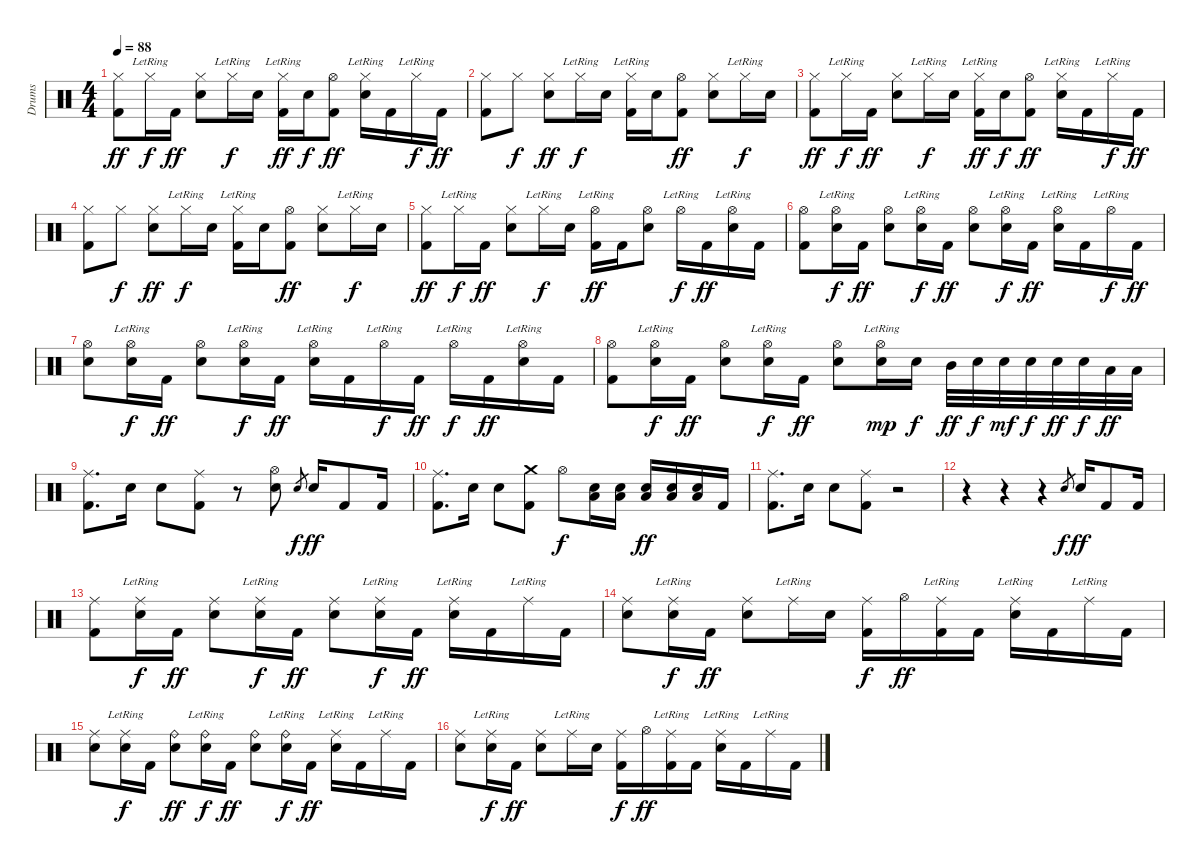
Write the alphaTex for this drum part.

\track ("Drums" "Drums") {instrument percussion}
\staff {score}
\articulation defaults
\ts (4 4)
\tempo 88
\clef neutral
\ks c
("Hi-Hat (closed)" "Kick (hit) 2").8{dy ff} "Hi-Hat (closed)"{lr}.16{dy f} "Kick (hit) 2".16{dy ff} ("Hi-Hat (closed)" "Electric Snare (hit)").8 "Hi-Hat (closed)"{lr}.16{dy f} "Electric Snare (hit)".16 ("Hi-Hat (closed)"{lr} "Kick (hit) 2").16{dy ff} "Electric Snare (hit)".16{dy f} ("Hi-Hat (open)" "Kick (hit) 2").8{dy ff} ("Hi-Hat (closed)"{lr} "Electric Snare (hit)").16 "Kick (hit) 2".16 "Hi-Hat (closed)"{lr}.16{dy f} "Kick (hit) 2".16{dy ff} |
("Hi-Hat (closed)" "Kick (hit) 2").8 "Hi-Hat (closed)".8{dy f} ("Hi-Hat (closed)" "Electric Snare (hit)").8{dy ff} "Hi-Hat (closed)"{lr}.16{dy f} "Electric Snare (hit)".16 ("Hi-Hat (closed)"{lr} "Kick (hit) 2").16 "Electric Snare (hit)".16 ("Hi-Hat (open)" "Kick (hit) 2").8{dy ff} ("Hi-Hat (closed)" "Electric Snare (hit)").8 "Hi-Hat (closed)"{lr}.16{dy f} "Electric Snare (hit)".16 |
("Hi-Hat (closed)" "Kick (hit) 2").8{dy ff} "Hi-Hat (closed)"{lr}.16{dy f} "Kick (hit) 2".16{dy ff} ("Hi-Hat (closed)" "Electric Snare (hit)").8 "Hi-Hat (closed)"{lr}.16{dy f} "Electric Snare (hit)".16 ("Hi-Hat (closed)"{lr} "Kick (hit) 2").16{dy ff} "Electric Snare (hit)".16{dy f} ("Hi-Hat (open)" "Kick (hit) 2").8{dy ff} ("Hi-Hat (closed)"{lr} "Electric Snare (hit)").16 "Kick (hit) 2".16 "Hi-Hat (closed)"{lr}.16{dy f} "Kick (hit) 2".16{dy ff} |
("Hi-Hat (closed)" "Kick (hit) 2").8 "Hi-Hat (closed)".8{dy f} ("Hi-Hat (closed)" "Electric Snare (hit)").8{dy ff} "Hi-Hat (closed)"{lr}.16{dy f} "Electric Snare (hit)".16 ("Hi-Hat (closed)"{lr} "Kick (hit) 2").16 "Electric Snare (hit)".16 ("Hi-Hat (open)" "Kick (hit) 2").8{dy ff} ("Hi-Hat (closed)" "Electric Snare (hit)").8 "Hi-Hat (closed)"{lr}.16{dy f} "Electric Snare (hit)".16 |
("Hi-Hat (closed)" "Kick (hit) 2").8{dy ff} "Hi-Hat (closed)"{lr}.16{dy f} "Kick (hit) 2".16{dy ff} ("Hi-Hat (closed)" "Electric Snare (hit)").8 "Hi-Hat (closed)"{lr}.16{dy f} "Electric Snare (hit)".16 ("Hi-Hat (open)"{lr} "Kick (hit) 2").16{dy ff} "Kick (hit) 2".16 ("Hi-Hat (open)" "Electric Snare (hit)").8 "Hi-Hat (open)"{lr}.16{dy f} "Kick (hit) 2".16{dy ff} ("Hi-Hat (open)"{lr} "Electric Snare (hit)").16 "Kick (hit) 2".16 |
("Hi-Hat (open)" "Kick (hit) 2").8 ("Hi-Hat (open)"{lr} "Electric Snare (hit)").16{dy f} "Kick (hit) 2".16{dy ff} ("Hi-Hat (open)" "Electric Snare (hit)").8 ("Hi-Hat (open)"{lr} "Electric Snare (hit)").16{dy f} "Kick (hit) 2".16{dy ff} ("Hi-Hat (open)" "Electric Snare (hit)").8 ("Hi-Hat (open)"{lr} "Electric Snare (hit)").16{dy f} "Kick (hit) 2".16{dy ff} ("Hi-Hat (open)"{lr} "Electric Snare (hit)").16 "Kick (hit) 2".16 "Hi-Hat (open)"{lr}.16{dy f} "Kick (hit) 2".16{dy ff} |
("Hi-Hat (open)" "Electric Snare (hit)").8 ("Hi-Hat (open)"{lr} "Electric Snare (hit)").16{dy f} "Kick (hit) 2".16{dy ff} ("Hi-Hat (open)" "Electric Snare (hit)").8 ("Hi-Hat (open)"{lr} "Electric Snare (hit)").16{dy f} "Kick (hit) 2".16{dy ff} ("Hi-Hat (open)"{lr} "Electric Snare (hit)").16 "Kick (hit) 2".16 "Hi-Hat (open)"{lr}.16{dy f} "Kick (hit) 2".16{dy ff} "Hi-Hat (open)"{lr}.16{dy f} "Kick (hit) 2".16{dy ff} ("Hi-Hat (open)"{lr} "Electric Snare (hit)").16 "Kick (hit) 2".16 |
("Hi-Hat (open)" "Kick (hit) 2").8 ("Hi-Hat (open)"{lr} "Electric Snare (hit)").16{dy f} "Kick (hit) 2".16{dy ff} ("Hi-Hat (open)" "Electric Snare (hit)").8 ("Hi-Hat (open)"{lr} "Electric Snare (hit)").16{dy f} "Kick (hit) 2".16{dy ff} ("Hi-Hat (open)" "Electric Snare (hit)").8 ("Hi-Hat (open)"{lr} "Electric Snare (hit)").16{dy mp} "Electric Snare (hit)".16{dy f} "Mid Tom (hit)".32{dy ff} "Electric Snare (hit)".32{dy f} "Electric Snare (hit)".32{dy mf} "Electric Snare (hit)".32{dy f} "Electric Snare (hit)".32{dy ff} "Electric Snare (hit)".32{dy f} "Low Tom (hit)".32{dy ff} "Low Tom (hit)".32 |
("Ride (middle)" "Kick (hit) 2").8{d} "Electric Snare (hit)".16 "Electric Snare (hit)".8 ("Ride (middle)" "Kick (hit) 2").8 r.8 ("Hi-Hat (open)" "Electric Snare (hit)").8 "Electric Snare (hit)".8{gr dy f} "Electric Snare (hit)".16{dy ff} "Kick (hit) 2".8 "Kick (hit) 2".16 |
("Ride (middle)" "Kick (hit) 2").8{d} "Electric Snare (hit)".16 "Electric Snare (hit)".8 ("Crash medium (hit)" "Kick (hit) 2").8 "Hi-Hat (open)".8{dy f} ("Electric Snare (hit)" "Low Tom (hit)").16 ("Electric Snare (hit)" "Low Tom (hit)").16 ("Electric Snare (hit)" "Low Tom (hit)").16{dy ff} ("Electric Snare (hit)" "Low Tom (hit)").16 ("Electric Snare (hit)" "Low Tom (hit)").16 "Kick (hit) 2".16 |
("Ride (middle)" "Kick (hit) 2").8{d} "Electric Snare (hit)".16 "Electric Snare (hit)".8 ("Ride (middle)" "Kick (hit) 2").8 r.2 |
r.4 r.4 r.4 "Electric Snare (hit)".8{gr dy f} "Electric Snare (hit)".16{dy ff} "Kick (hit) 2".8 "Kick (hit) 2".16 |
("Ride (middle)" "Kick (hit) 2").8 ("Ride (middle)"{lr} "Electric Snare (hit)").16{dy f} "Kick (hit) 2".16{dy ff} ("Ride (middle)" "Electric Snare (hit)").8 ("Ride (middle)"{lr} "Electric Snare (hit)").16{dy f} "Kick (hit) 2".16{dy ff} ("Ride (middle)" "Electric Snare (hit)").8 ("Ride (middle)"{lr} "Electric Snare (hit)").16{dy f} "Kick (hit) 2".16{dy ff} ("Ride (middle)"{lr} "Electric Snare (hit)").16 "Kick (hit) 2".16 "Ride (middle)"{lr}.16 "Kick (hit) 2".16 |
("Ride (middle)" "Electric Snare (hit)").8 ("Ride (middle)"{lr} "Electric Snare (hit)").16{dy f} "Kick (hit) 2".16{dy ff} ("Ride (middle)" "Electric Snare (hit)").8 "Ride (middle)"{lr}.16 "Electric Snare (hit)".16 ("Ride (middle)" "Kick (hit) 2").16{dy f} "Hi-Hat (open)".16{dy ff} ("Ride (middle)"{lr} "Kick (hit) 2").16 "Kick (hit) 2".16 ("Ride (middle)"{lr} "Electric Snare (hit)").16 "Kick (hit) 2".16 "Ride (middle)"{lr}.16 "Kick (hit) 2".16 |
("Ride (middle)" "Electric Snare (hit)").8 ("Ride (middle)"{lr} "Electric Snare (hit)").16{dy f} "Kick (hit) 2".16 ("Ride (bell)" "Electric Snare (hit)").8{dy ff} ("Ride (bell)"{lr} "Electric Snare (hit)").16{dy f} "Kick (hit) 2".16{dy ff} ("Ride (bell)" "Electric Snare (hit)").8 ("Ride (bell)"{lr} "Electric Snare (hit)").16{dy f} "Kick (hit) 2".16{dy ff} ("Ride (middle)"{lr} "Electric Snare (hit)").16 "Kick (hit) 2".16 "Ride (middle)"{lr}.16 "Kick (hit) 2".16 |
("Ride (middle)" "Electric Snare (hit)").8 ("Ride (middle)"{lr} "Electric Snare (hit)").16{dy f} "Kick (hit) 2".16{dy ff} ("Ride (middle)" "Electric Snare (hit)").8 "Ride (middle)"{lr}.16 "Electric Snare (hit)".16 ("Ride (middle)" "Kick (hit) 2").16{dy f} "Hi-Hat (open)".16{dy ff} ("Ride (middle)"{lr} "Kick (hit) 2").16 "Kick (hit) 2".16 ("Ride (middle)"{lr} "Electric Snare (hit)").16 "Kick (hit) 2".16 "Ride (middle)"{lr}.16 "Kick (hit) 2".16
